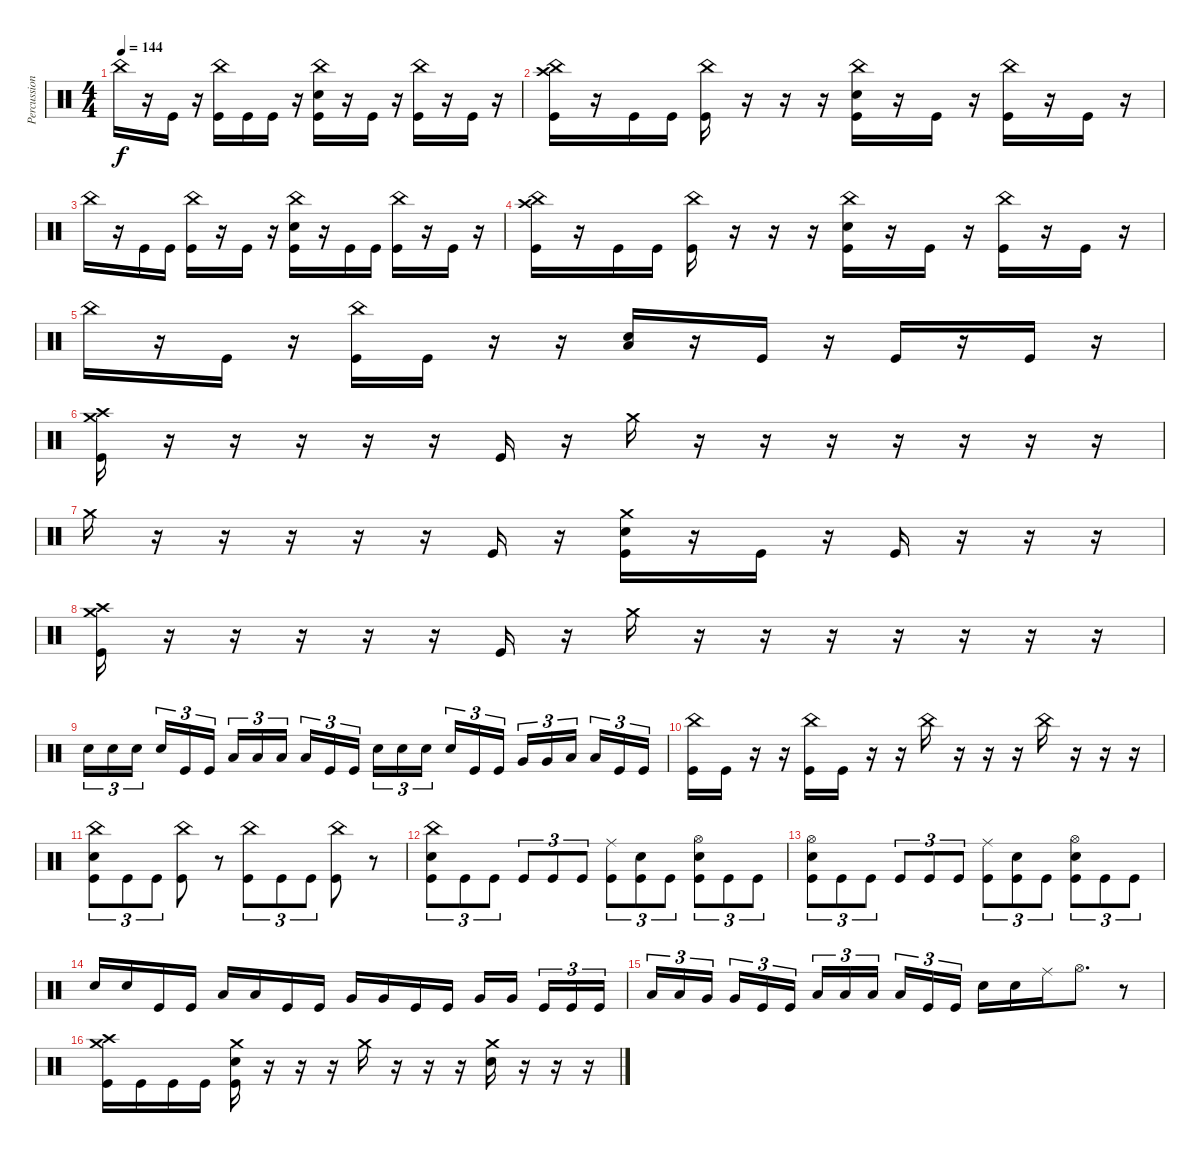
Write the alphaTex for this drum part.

\track ("Percussion" "Percussion") {instrument percussion}
\staff {score}
\articulation defaults
\ts (4 4)
\tempo 144
\clef neutral
\ks c "China (hit)".16{dy f}
r.16 "Kick (hit)".16 r.16 ("China (hit)" "Kick (hit)").16 "Kick (hit)".16 "Kick (hit)".16 r.16 ("China (hit)" "Electric Snare (hit)" "Kick (hit)").16 r.16 "Kick (hit)".16 r.16 ("China (hit)" "Kick (hit)").16 r.16 "Kick (hit)".16 r.16 |
("Crash high (hit)" "China (hit)" "Kick (hit)").16 r.16 "Kick (hit)".16 "Kick (hit)".16 ("China (hit)" "Kick (hit)").16 r.16 r.16 r.16 ("China (hit)" "Electric Snare (hit)" "Kick (hit)").16 r.16 "Kick (hit)".16 r.16 ("China (hit)" "Kick (hit)").16 r.16 "Kick (hit)".16 r.16 |
"China (hit)".16 r.16 "Kick (hit)".16 "Kick (hit)".16 ("China (hit)" "Kick (hit)").16 r.16 "Kick (hit)".16 r.16 ("China (hit)" "Electric Snare (hit)" "Kick (hit)").16 r.16 "Kick (hit)".16 "Kick (hit)".16 ("China (hit)" "Kick (hit)").16 r.16 "Kick (hit)".16 r.16 |
("Crash high (hit)" "China (hit)" "Kick (hit)").16 r.16 "Kick (hit)".16 "Kick (hit)".16 ("China (hit)" "Kick (hit)").16 r.16 r.16 r.16 ("China (hit)" "Electric Snare (hit)" "Kick (hit)").16 r.16 "Kick (hit)".16 r.16 ("China (hit)" "Kick (hit)").16 r.16 "Kick (hit)".16 r.16 |
"China (hit)".16 r.16 "Kick (hit)".16 r.16 ("China (hit)" "Kick (hit)").16 "Kick (hit)".16 r.16 r.16 ("Low Floor Tom (hit)" "Electric Snare (hit)").16 r.16 "Kick (hit)".16 r.16 "Kick (hit)".16 r.16 "Kick (hit)".16 r.16 |
("Crash high (hit)" "Crash medium (hit)" "Kick (hit)").16 r.16 r.16 r.16 r.16 r.16 "Kick (hit)".16 r.16 "Crash medium (hit)".16 r.16 r.16 r.16 r.16 r.16 r.16 r.16 |
"Crash medium (hit)".16 r.16 r.16 r.16 r.16 r.16 "Kick (hit)".16 r.16 ("Crash medium (hit)" "Electric Snare (hit)" "Kick (hit)").16 r.16 "Kick (hit)".16 r.16 "Kick (hit)".16 r.16 r.16 r.16 |
("Crash high (hit)" "Crash medium (hit)" "Kick (hit)").16 r.16 r.16 r.16 r.16 r.16 "Kick (hit)".16 r.16 "Crash medium (hit)".16 r.16 r.16 r.16 r.16 r.16 r.16 r.16 |
"Electric Snare (hit)".16{tu (3 2)} "Electric Snare (hit)".16{tu (3 2)} "Electric Snare (hit)".16{tu (3 2) beam splitsecondary} "Electric Snare (hit)".16{tu (3 2)} "Kick (hit)".16{tu (3 2)} "Kick (hit)".16{tu (3 2)} "Low Tom (hit)".16{tu (3 2)} "Low Tom (hit)".16{tu (3 2)} "Low Tom (hit)".16{tu (3 2) beam splitsecondary} "Low Tom (hit)".16{tu (3 2)} "Kick (hit)".16{tu (3 2)} "Kick (hit)".16{tu (3 2)} "Electric Snare (hit)".16{tu (3 2)} "Electric Snare (hit)".16{tu (3 2)} "Electric Snare (hit)".16{tu (3 2) beam splitsecondary} "Electric Snare (hit)".16{tu (3 2)} "Kick (hit)".16{tu (3 2)} "Kick (hit)".16{tu (3 2)} "Very Low Tom (hit)".16{tu (3 2)} "Very Low Tom (hit)".16{tu (3 2)} "Low Floor Tom (hit)".16{tu (3 2) beam splitsecondary} "Low Floor Tom (hit)".16{tu (3 2)} "Kick (hit)".16{tu (3 2)} "Kick (hit)".16{tu (3 2)} |
("China (hit)" "Kick (hit)").16 "Kick (hit)".16 r.16 r.16 ("China (hit)" "Kick (hit)").16 "Kick (hit)".16 r.16 r.16 "China (hit)".16 r.16 r.16 r.16 "China (hit)".16 r.16 r.16 r.16 |
("China (hit)" "Electric Snare (hit)" "Kick (hit)").8{tu (3 2)} "Kick (hit)".8{tu (3 2)} "Kick (hit)".8{tu (3 2)} ("China (hit)" "Kick (hit)").8 r.8 ("China (hit)" "Kick (hit)").8{tu (3 2)} "Kick (hit)".8{tu (3 2)} "Kick (hit)".8{tu (3 2)} ("China (hit)" "Kick (hit)").8 r.8 |
("China (hit)" "Electric Snare (hit)" "Kick (hit)").8{tu (3 2)} "Kick (hit)".8{tu (3 2)} "Kick (hit)".8{tu (3 2)} "Kick (hit)".8{tu (3 2)} "Kick (hit)".8{tu (3 2)} "Kick (hit)".8{tu (3 2)} ("Ride (middle)" "Kick (hit)").8{tu (3 2)} ("Electric Snare (hit)" "Kick (hit)").8{tu (3 2)} "Kick (hit)".8{tu (3 2)} ("Hi-Hat (open)" "Electric Snare (hit)" "Kick (hit)").8{tu (3 2)} "Kick (hit)".8{tu (3 2)} "Kick (hit)".8{tu (3 2)} |
("Hi-Hat (open)" "Electric Snare (hit)" "Kick (hit)").8{tu (3 2)} "Kick (hit)".8{tu (3 2)} "Kick (hit)".8{tu (3 2)} "Kick (hit)".8{tu (3 2)} "Kick (hit)".8{tu (3 2)} "Kick (hit)".8{tu (3 2)} ("Ride (middle)" "Kick (hit)").8{tu (3 2)} ("Electric Snare (hit)" "Kick (hit)").8{tu (3 2)} "Kick (hit)".8{tu (3 2)} ("Hi-Hat (open)" "Electric Snare (hit)" "Kick (hit)").8{tu (3 2)} "Kick (hit)".8{tu (3 2)} "Kick (hit)".8{tu (3 2)} |
"Electric Snare (hit)".16 "Electric Snare (hit)".16 "Kick (hit)".16 "Kick (hit)".16 "Low Tom (hit)".16 "Low Tom (hit)".16 "Kick (hit)".16 "Kick (hit)".16 "Very Low Tom (hit)".16 "Very Low Tom (hit)".16 "Kick (hit)".16 "Kick (hit)".16 "Very Low Tom (hit)".16 "Very Low Tom (hit)".16{beam splitsecondary} "Kick (hit)".16{tu (3 2)} "Kick (hit)".16{tu (3 2)} "Kick (hit)".16{tu (3 2)} |
"Low Floor Tom (hit)".16{tu (3 2)} "Low Floor Tom (hit)".16{tu (3 2)} "Very Low Tom (hit)".16{tu (3 2) beam splitsecondary} "Very Low Tom (hit)".16{tu (3 2)} "Kick (hit)".16{tu (3 2)} "Kick (hit)".16{tu (3 2)} "Low Tom (hit)".16{tu (3 2)} "Low Tom (hit)".16{tu (3 2)} "Low Tom (hit)".16{tu (3 2) beam splitsecondary} "Low Tom (hit)".16{tu (3 2)} "Kick (hit)".16{tu (3 2)} "Kick (hit)".16{tu (3 2)} "Electric Snare (hit)".16 "Electric Snare (hit)".16 "Ride (middle)".16 "Hi-Hat (open)".8{d} r.8 |
("Crash high (hit)" "Crash medium (hit)" "Kick (hit)").16 "Kick (hit)".16 "Kick (hit)".16 "Kick (hit)".16 ("Crash medium (hit)" "Electric Snare (hit)" "Kick (hit)").16 r.16 r.16 r.16 "Crash medium (hit)".16 r.16 r.16 r.16 ("Crash medium (hit)" "Electric Snare (hit)").16 r.16 r.16 r.16
